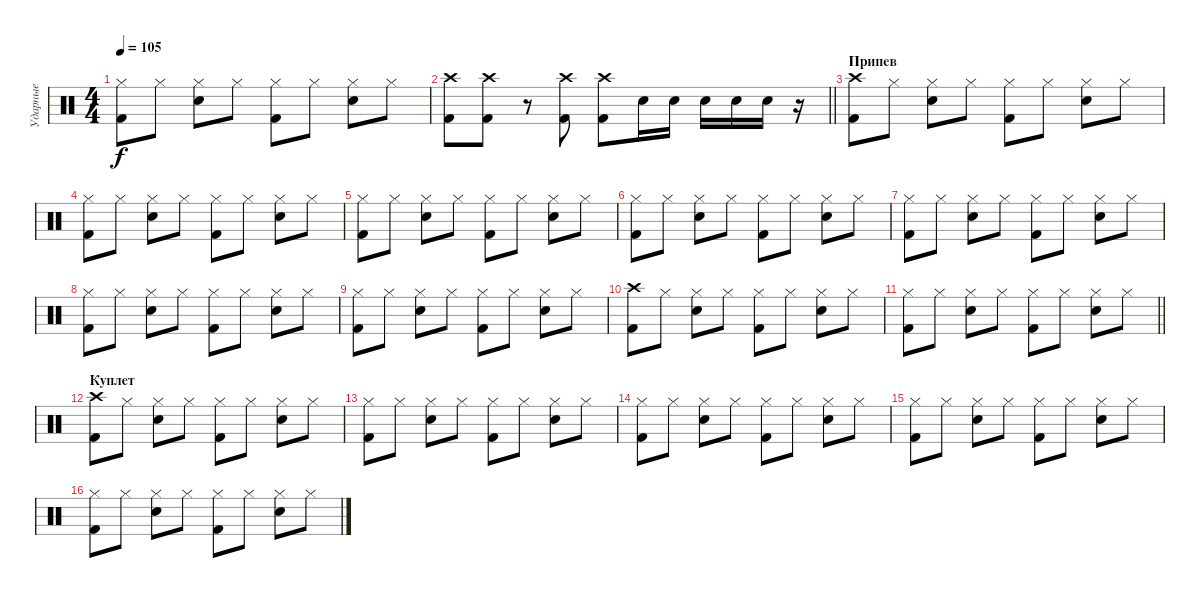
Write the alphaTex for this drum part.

\track ("Ударные" "Ударные") {instrument percussion}
\staff {score}
\articulation defaults
\ts (4 4)
\tempo 105
\clef neutral
\ks c
("Hi-Hat (closed)" "Kick (hit) 2").8{dy f} "Hi-Hat (closed)".8 ("Hi-Hat (closed)" "Snare (hit) 2").8 "Hi-Hat (closed)".8 ("Hi-Hat (closed)" "Kick (hit) 2").8 "Hi-Hat (closed)".8 ("Hi-Hat (closed)" "Snare (hit) 2").8 "Hi-Hat (closed)".8 |
\barLineRight lightlight
("Kick (hit) 2" "Crash high (hit)").8 ("Kick (hit) 2" "Crash high (hit)").8 r.8 ("Kick (hit) 2" "Crash high (hit)").8 ("Kick (hit) 2" "Crash high (hit)").8 "Snare (hit) 2".16 "Snare (hit) 2".16 "Snare (hit) 2".16 "Snare (hit) 2".16 "Snare (hit) 2".16 r.16 |
\section ("" "Припев")
("Crash high (hit)" "Kick (hit) 2").8 "Hi-Hat (closed)".8 ("Hi-Hat (closed)" "Snare (hit) 2").8 "Hi-Hat (closed)".8 ("Hi-Hat (closed)" "Kick (hit) 2").8 "Hi-Hat (closed)".8 ("Hi-Hat (closed)" "Snare (hit) 2").8 "Hi-Hat (closed)".8 |
("Hi-Hat (closed)" "Kick (hit) 2").8 "Hi-Hat (closed)".8 ("Hi-Hat (closed)" "Snare (hit) 2").8 "Hi-Hat (closed)".8 ("Hi-Hat (closed)" "Kick (hit) 2").8 "Hi-Hat (closed)".8 ("Hi-Hat (closed)" "Snare (hit) 2").8 "Hi-Hat (closed)".8 |
("Hi-Hat (closed)" "Kick (hit) 2").8 "Hi-Hat (closed)".8 ("Hi-Hat (closed)" "Snare (hit) 2").8 "Hi-Hat (closed)".8 ("Hi-Hat (closed)" "Kick (hit) 2").8 "Hi-Hat (closed)".8 ("Hi-Hat (closed)" "Snare (hit) 2").8 "Hi-Hat (closed)".8 |
("Hi-Hat (closed)" "Kick (hit) 2").8 "Hi-Hat (closed)".8 ("Hi-Hat (closed)" "Snare (hit) 2").8 "Hi-Hat (closed)".8 ("Hi-Hat (closed)" "Kick (hit) 2").8 "Hi-Hat (closed)".8 ("Hi-Hat (closed)" "Snare (hit) 2").8 "Hi-Hat (closed)".8 |
("Hi-Hat (closed)" "Kick (hit) 2").8 "Hi-Hat (closed)".8 ("Hi-Hat (closed)" "Snare (hit) 2").8 "Hi-Hat (closed)".8 ("Hi-Hat (closed)" "Kick (hit) 2").8 "Hi-Hat (closed)".8 ("Hi-Hat (closed)" "Snare (hit) 2").8 "Hi-Hat (closed)".8 |
("Hi-Hat (closed)" "Kick (hit) 2").8 "Hi-Hat (closed)".8 ("Hi-Hat (closed)" "Snare (hit) 2").8 "Hi-Hat (closed)".8 ("Hi-Hat (closed)" "Kick (hit) 2").8 "Hi-Hat (closed)".8 ("Hi-Hat (closed)" "Snare (hit) 2").8 "Hi-Hat (closed)".8 |
("Hi-Hat (closed)" "Kick (hit) 2").8 "Hi-Hat (closed)".8 ("Hi-Hat (closed)" "Snare (hit) 2").8 "Hi-Hat (closed)".8 ("Hi-Hat (closed)" "Kick (hit) 2").8 "Hi-Hat (closed)".8 ("Hi-Hat (closed)" "Snare (hit) 2").8 "Hi-Hat (closed)".8 |
("Crash high (hit)" "Kick (hit) 2").8 "Hi-Hat (closed)".8 ("Hi-Hat (closed)" "Snare (hit) 2").8 "Hi-Hat (closed)".8 ("Hi-Hat (closed)" "Kick (hit) 2").8 "Hi-Hat (closed)".8 ("Hi-Hat (closed)" "Snare (hit) 2").8 "Hi-Hat (closed)".8 |
\barLineRight lightlight
("Hi-Hat (closed)" "Kick (hit) 2").8 "Hi-Hat (closed)".8 ("Hi-Hat (closed)" "Snare (hit) 2").8 "Hi-Hat (closed)".8 ("Hi-Hat (closed)" "Kick (hit) 2").8 "Hi-Hat (closed)".8 ("Hi-Hat (closed)" "Snare (hit) 2").8 "Hi-Hat (closed)".8 |
\section ("" "Куплет")
("Crash high (hit)" "Kick (hit) 2").8 "Hi-Hat (closed)".8 ("Hi-Hat (closed)" "Snare (hit) 2").8 "Hi-Hat (closed)".8 ("Hi-Hat (closed)" "Kick (hit) 2").8 "Hi-Hat (closed)".8 ("Hi-Hat (closed)" "Snare (hit) 2").8 "Hi-Hat (closed)".8 |
("Hi-Hat (closed)" "Kick (hit) 2").8 "Hi-Hat (closed)".8 ("Hi-Hat (closed)" "Snare (hit) 2").8 "Hi-Hat (closed)".8 ("Hi-Hat (closed)" "Kick (hit) 2").8 "Hi-Hat (closed)".8 ("Hi-Hat (closed)" "Snare (hit) 2").8 "Hi-Hat (closed)".8 |
("Hi-Hat (closed)" "Kick (hit) 2").8 "Hi-Hat (closed)".8 ("Hi-Hat (closed)" "Snare (hit) 2").8 "Hi-Hat (closed)".8 ("Hi-Hat (closed)" "Kick (hit) 2").8 "Hi-Hat (closed)".8 ("Hi-Hat (closed)" "Snare (hit) 2").8 "Hi-Hat (closed)".8 |
("Hi-Hat (closed)" "Kick (hit) 2").8 "Hi-Hat (closed)".8 ("Hi-Hat (closed)" "Snare (hit) 2").8 "Hi-Hat (closed)".8 ("Hi-Hat (closed)" "Kick (hit) 2").8 "Hi-Hat (closed)".8 ("Hi-Hat (closed)" "Snare (hit) 2").8 "Hi-Hat (closed)".8 |
("Hi-Hat (closed)" "Kick (hit) 2").8 "Hi-Hat (closed)".8 ("Hi-Hat (closed)" "Snare (hit) 2").8 "Hi-Hat (closed)".8 ("Hi-Hat (closed)" "Kick (hit) 2").8 "Hi-Hat (closed)".8 ("Hi-Hat (closed)" "Snare (hit) 2").8 "Hi-Hat (closed)".8
